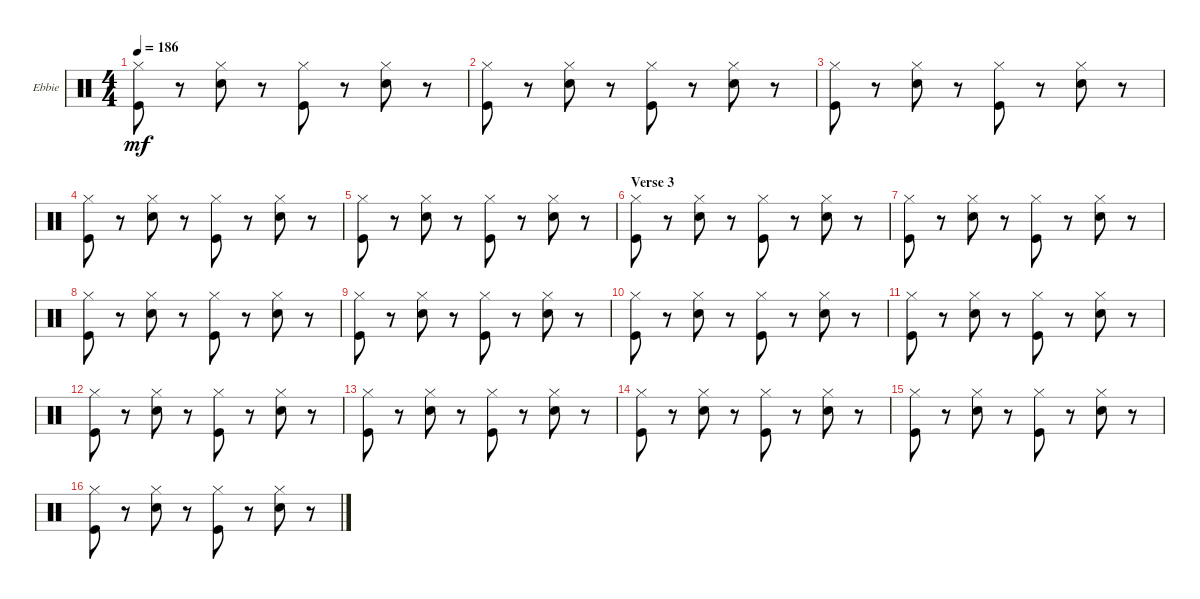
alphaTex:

\defaultSystemsLayout 4
\bracketExtendMode groupsimilarinstruments
\firstSystemTrackNameOrientation horizontal
\otherSystemsTrackNameOrientation horizontal
\track ("Ebbie Hardy" "Ebbie") {instrument percussion}
\staff {score}
\articulation defaults
\ts (4 4)
\tempo 186
\clef neutral
\scale
0.333333
\ks c
("Hi-Hat (closed)" "Kick (hit)").8{dy mf} r.8 ("Hi-Hat (closed)" "Snare (hit) 2").8 r.8 ("Hi-Hat (closed)" "Kick (hit)").8 r.8 ("Hi-Hat (closed)" "Snare (hit) 2").8 r.8 |
\scale
0.333333 ("Hi-Hat (closed)" "Kick (hit)").8 r.8 ("Hi-Hat (closed)" "Snare (hit) 2").8 r.8 ("Hi-Hat (closed)" "Kick (hit)").8 r.8 ("Hi-Hat (closed)" "Snare (hit) 2").8 r.8 |
\scale
0.333333 ("Hi-Hat (closed)" "Kick (hit)").8 r.8 ("Hi-Hat (closed)" "Snare (hit) 2").8 r.8 ("Hi-Hat (closed)" "Kick (hit)").8 r.8 ("Hi-Hat (closed)" "Snare (hit) 2").8 r.8 |
\scale
0.333333 ("Hi-Hat (closed)" "Kick (hit)").8 r.8 ("Hi-Hat (closed)" "Snare (hit) 2").8 r.8 ("Hi-Hat (closed)" "Kick (hit)").8 r.8 ("Hi-Hat (closed)" "Snare (hit) 2").8 r.8 |
\scale
0.333333 ("Hi-Hat (closed)" "Kick (hit)").8 r.8 ("Hi-Hat (closed)" "Snare (hit) 2").8 r.8 ("Hi-Hat (closed)" "Kick (hit)").8 r.8 ("Hi-Hat (closed)" "Snare (hit) 2").8 r.8 |
\section ("" "Verse 3")
\scale
0.333333 ("Hi-Hat (closed)" "Kick (hit)").8 r.8 ("Hi-Hat (closed)" "Snare (hit) 2").8 r.8 ("Hi-Hat (closed)" "Kick (hit)").8 r.8 ("Hi-Hat (closed)" "Snare (hit) 2").8 r.8 |
\scale
0.333333 ("Hi-Hat (closed)" "Kick (hit)").8 r.8 ("Hi-Hat (closed)" "Snare (hit) 2").8 r.8 ("Hi-Hat (closed)" "Kick (hit)").8 r.8 ("Hi-Hat (closed)" "Snare (hit) 2").8 r.8 |
\scale
0.333333 ("Hi-Hat (closed)" "Kick (hit)").8 r.8 ("Hi-Hat (closed)" "Snare (hit) 2").8 r.8 ("Hi-Hat (closed)" "Kick (hit)").8 r.8 ("Hi-Hat (closed)" "Snare (hit) 2").8 r.8 |
\scale
0.333333 ("Hi-Hat (closed)" "Kick (hit)").8 r.8 ("Hi-Hat (closed)" "Snare (hit) 2").8 r.8 ("Hi-Hat (closed)" "Kick (hit)").8 r.8 ("Hi-Hat (closed)" "Snare (hit) 2").8 r.8 |
\scale
0.333333 ("Hi-Hat (closed)" "Kick (hit)").8 r.8 ("Hi-Hat (closed)" "Snare (hit) 2").8 r.8 ("Hi-Hat (closed)" "Kick (hit)").8 r.8 ("Hi-Hat (closed)" "Snare (hit) 2").8 r.8 |
\scale
0.333333 ("Hi-Hat (closed)" "Kick (hit)").8 r.8 ("Hi-Hat (closed)" "Snare (hit) 2").8 r.8 ("Hi-Hat (closed)" "Kick (hit)").8 r.8 ("Hi-Hat (closed)" "Snare (hit) 2").8 r.8 |
\scale
0.333333 ("Hi-Hat (closed)" "Kick (hit)").8 r.8 ("Hi-Hat (closed)" "Snare (hit) 2").8 r.8 ("Hi-Hat (closed)" "Kick (hit)").8 r.8 ("Hi-Hat (closed)" "Snare (hit) 2").8 r.8 |
\scale
0.333333 ("Hi-Hat (closed)" "Kick (hit)").8 r.8 ("Hi-Hat (closed)" "Snare (hit) 2").8 r.8 ("Hi-Hat (closed)" "Kick (hit)").8 r.8 ("Hi-Hat (closed)" "Snare (hit) 2").8 r.8 |
\scale
0.333333 ("Hi-Hat (closed)" "Kick (hit)").8 r.8 ("Hi-Hat (closed)" "Snare (hit) 2").8 r.8 ("Hi-Hat (closed)" "Kick (hit)").8 r.8 ("Hi-Hat (closed)" "Snare (hit) 2").8 r.8 |
\scale
0.333333 ("Hi-Hat (closed)" "Kick (hit)").8 r.8 ("Hi-Hat (closed)" "Snare (hit) 2").8 r.8 ("Hi-Hat (closed)" "Kick (hit)").8 r.8 ("Hi-Hat (closed)" "Snare (hit) 2").8 r.8 |
\scale
0.333333 ("Hi-Hat (closed)" "Kick (hit)").8 r.8 ("Hi-Hat (closed)" "Snare (hit) 2").8 r.8 ("Hi-Hat (closed)" "Kick (hit)").8 r.8 ("Hi-Hat (closed)" "Snare (hit) 2").8 r.8
